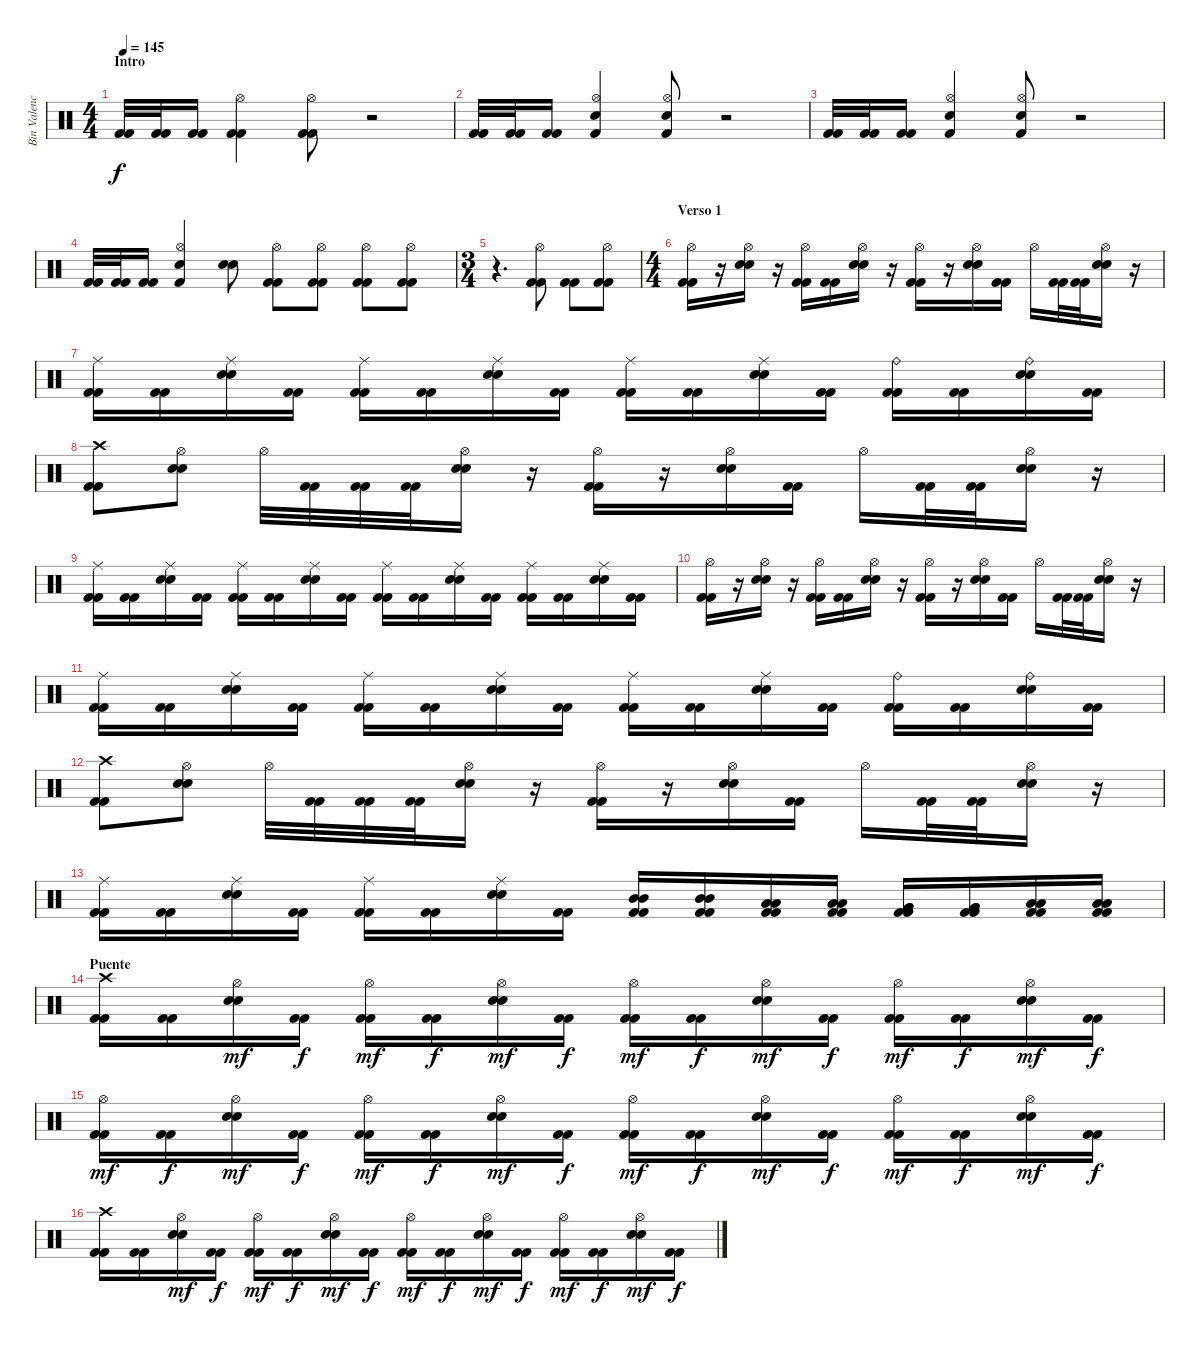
\track ("Bin Valencia (Bateria)" "Bin Valenc") {instrument percussion}
\staff {score}
\articulation defaults
\ts (4 4)
\section ("" "Intro")
\tempo 145
\clef neutral
\ks c
("Kick (hit) 2" "Kick (hit) 2").32{dy f} ("Kick (hit) 2" "Kick (hit) 2").32 ("Kick (hit) 2" "Kick (hit) 2").16 ("Hi-Hat (open)" "Kick (hit) 2" "Kick (hit) 2").4 ("Hi-Hat (open)" "Kick (hit) 2" "Kick (hit) 2").8 r.2 |
("Kick (hit) 2" "Kick (hit) 2").32 ("Kick (hit) 2" "Kick (hit) 2").32 ("Kick (hit) 2" "Kick (hit) 2").16 ("Hi-Hat (open)" "Snare (hit) 2" "Kick (hit) 2").4 ("Hi-Hat (open)" "Snare (hit) 2" "Kick (hit) 2").8 r.2 |
("Kick (hit) 2" "Kick (hit) 2").32 ("Kick (hit) 2" "Kick (hit) 2").32 ("Kick (hit) 2" "Kick (hit) 2").16 ("Hi-Hat (open)" "Snare (hit) 2" "Kick (hit) 2").4 ("Hi-Hat (open)" "Snare (hit) 2" "Kick (hit) 2").8 r.2 |
("Kick (hit) 2" "Kick (hit) 2").32 ("Kick (hit) 2" "Kick (hit) 2").32 ("Kick (hit) 2" "Kick (hit) 2").16 ("Hi-Hat (open)" "Snare (hit) 2" "Kick (hit) 2").4 ("Electric Snare (hit)" "Electric Snare (hit)").8 ("Hi-Hat (open)" "Kick (hit) 2" "Kick (hit) 2").8 ("Hi-Hat (open)" "Kick (hit) 2" "Kick (hit) 2").8 ("Hi-Hat (open)" "Kick (hit) 2" "Kick (hit) 2").8 ("Hi-Hat (open)" "Kick (hit) 2" "Kick (hit) 2").8 |
\ts (3 4)
r.4{d} ("Hi-Hat (open)" "Kick (hit) 2" "Kick (hit) 2").8 ("Kick (hit) 2" "Kick (hit) 2").8 ("Hi-Hat (open)" "Kick (hit) 2" "Kick (hit) 2").8 |
\ts (4 4)
\section ("" "Verso 1")
("Hi-Hat (open)" "Kick (hit) 2" "Kick (hit) 2").16 r.16 ("Hi-Hat (open)" "Snare (hit) 2" "Snare (hit) 2").16 r.16 ("Hi-Hat (open)" "Kick (hit) 2" "Kick (hit) 2").16 ("Kick (hit) 2" "Kick (hit) 2").16 ("Hi-Hat (open)" "Snare (hit) 2" "Snare (hit) 2").16 r.16 ("Hi-Hat (open)" "Kick (hit) 2" "Kick (hit) 2").16 r.16 ("Hi-Hat (open)" "Snare (hit) 2" "Snare (hit) 2").16 ("Kick (hit) 2" "Kick (hit) 2").16 "Hi-Hat (open)".16 ("Kick (hit) 2" "Kick (hit) 2").32 ("Kick (hit) 2" "Kick (hit) 2").32 ("Hi-Hat (open)" "Snare (hit) 2" "Snare (hit) 2").16 r.16 |
("Ride (middle)" "Kick (hit) 2" "Kick (hit) 2").16 ("Kick (hit) 2" "Kick (hit) 2").16 ("Ride (middle)" "Snare (hit) 2" "Snare (hit) 2").16 ("Kick (hit) 2" "Kick (hit) 2").16 ("Ride (middle)" "Kick (hit) 2" "Kick (hit) 2").16 ("Kick (hit) 2" "Kick (hit) 2").16 ("Ride (middle)" "Snare (hit) 2" "Snare (hit) 2").16 ("Kick (hit) 2" "Kick (hit) 2").16 ("Ride (middle)" "Kick (hit) 2" "Kick (hit) 2").16 ("Kick (hit) 2" "Kick (hit) 2").16 ("Ride (middle)" "Snare (hit) 2" "Snare (hit) 2").16 ("Kick (hit) 2" "Kick (hit) 2").16 ("Ride (bell)" "Kick (hit) 2" "Kick (hit) 2").16 ("Kick (hit) 2" "Kick (hit) 2").16 ("Ride (bell)" "Snare (hit) 2" "Snare (hit) 2").16 ("Kick (hit) 2" "Kick (hit) 2").16 |
("Crash high (hit)" "Kick (hit) 2" "Kick (hit) 2").8 ("Hi-Hat (open)" "Snare (hit) 2" "Snare (hit) 2").8 "Hi-Hat (open)".32 ("Kick (hit) 2" "Kick (hit) 2").32 ("Kick (hit) 2" "Kick (hit) 2").32 ("Kick (hit) 2" "Kick (hit) 2").32 ("Hi-Hat (open)" "Snare (hit) 2" "Snare (hit) 2").16 r.16 ("Hi-Hat (open)" "Kick (hit) 2" "Kick (hit) 2").16 r.16 ("Hi-Hat (open)" "Snare (hit) 2" "Snare (hit) 2").16 ("Kick (hit) 2" "Kick (hit) 2").16 "Hi-Hat (open)".16 ("Kick (hit) 2" "Kick (hit) 2").32 ("Kick (hit) 2" "Kick (hit) 2").32 ("Hi-Hat (open)" "Snare (hit) 2" "Snare (hit) 2").16 r.16 |
("Ride (middle)" "Kick (hit) 2" "Kick (hit) 2").16 ("Kick (hit) 2" "Kick (hit) 2").16 ("Ride (middle)" "Snare (hit) 2" "Snare (hit) 2").16 ("Kick (hit) 2" "Kick (hit) 2").16 ("Ride (middle)" "Kick (hit) 2" "Kick (hit) 2").16 ("Kick (hit) 2" "Kick (hit) 2").16 ("Ride (middle)" "Snare (hit) 2" "Snare (hit) 2").16 ("Kick (hit) 2" "Kick (hit) 2").16 ("Ride (middle)" "Kick (hit) 2" "Kick (hit) 2").16 ("Kick (hit) 2" "Kick (hit) 2").16 ("Ride (middle)" "Snare (hit) 2" "Snare (hit) 2").16 ("Kick (hit) 2" "Kick (hit) 2").16 ("Ride (middle)" "Kick (hit) 2" "Kick (hit) 2").16 ("Kick (hit) 2" "Kick (hit) 2").16 ("Ride (middle)" "Snare (hit) 2" "Snare (hit) 2").16 ("Kick (hit) 2" "Kick (hit) 2").16 |
("Hi-Hat (open)" "Kick (hit) 2" "Kick (hit) 2").16 r.16 ("Hi-Hat (open)" "Snare (hit) 2" "Snare (hit) 2").16 r.16 ("Hi-Hat (open)" "Kick (hit) 2" "Kick (hit) 2").16 ("Kick (hit) 2" "Kick (hit) 2").16 ("Hi-Hat (open)" "Snare (hit) 2" "Snare (hit) 2").16 r.16 ("Hi-Hat (open)" "Kick (hit) 2" "Kick (hit) 2").16 r.16 ("Hi-Hat (open)" "Snare (hit) 2" "Snare (hit) 2").16 ("Kick (hit) 2" "Kick (hit) 2").16 "Hi-Hat (open)".16 ("Kick (hit) 2" "Kick (hit) 2").32 ("Kick (hit) 2" "Kick (hit) 2").32 ("Hi-Hat (open)" "Snare (hit) 2" "Snare (hit) 2").16 r.16 |
("Ride (middle)" "Kick (hit) 2" "Kick (hit) 2").16 ("Kick (hit) 2" "Kick (hit) 2").16 ("Ride (middle)" "Snare (hit) 2" "Snare (hit) 2").16 ("Kick (hit) 2" "Kick (hit) 2").16 ("Ride (middle)" "Kick (hit) 2" "Kick (hit) 2").16 ("Kick (hit) 2" "Kick (hit) 2").16 ("Ride (middle)" "Snare (hit) 2" "Snare (hit) 2").16 ("Kick (hit) 2" "Kick (hit) 2").16 ("Ride (middle)" "Kick (hit) 2" "Kick (hit) 2").16 ("Kick (hit) 2" "Kick (hit) 2").16 ("Ride (middle)" "Snare (hit) 2" "Snare (hit) 2").16 ("Kick (hit) 2" "Kick (hit) 2").16 ("Ride (bell)" "Kick (hit) 2" "Kick (hit) 2").16 ("Kick (hit) 2" "Kick (hit) 2").16 ("Ride (bell)" "Snare (hit) 2" "Snare (hit) 2").16 ("Kick (hit) 2" "Kick (hit) 2").16 |
("Crash high (hit)" "Kick (hit) 2" "Kick (hit) 2").8 ("Hi-Hat (open)" "Snare (hit) 2" "Snare (hit) 2").8 "Hi-Hat (open)".32 ("Kick (hit) 2" "Kick (hit) 2").32 ("Kick (hit) 2" "Kick (hit) 2").32 ("Kick (hit) 2" "Kick (hit) 2").32 ("Hi-Hat (open)" "Snare (hit) 2" "Snare (hit) 2").16 r.16 ("Hi-Hat (open)" "Kick (hit) 2" "Kick (hit) 2").16 r.16 ("Hi-Hat (open)" "Snare (hit) 2" "Snare (hit) 2").16 ("Kick (hit) 2" "Kick (hit) 2").16 "Hi-Hat (open)".16 ("Kick (hit) 2" "Kick (hit) 2").32 ("Kick (hit) 2" "Kick (hit) 2").32 ("Hi-Hat (open)" "Snare (hit) 2" "Snare (hit) 2").16 r.16 |
("Ride (middle)" "Kick (hit) 2" "Kick (hit) 2").16 ("Kick (hit) 2" "Kick (hit) 2").16 ("Ride (middle)" "Snare (hit) 2" "Snare (hit) 2").16 ("Kick (hit) 2" "Kick (hit) 2").16 ("Ride (middle)" "Kick (hit) 2" "Kick (hit) 2").16 ("Kick (hit) 2" "Kick (hit) 2").16 ("Ride (middle)" "Snare (hit) 2" "Snare (hit) 2").16 ("Kick (hit) 2" "Kick (hit) 2").16 ("Kick (hit) 2" "Kick (hit) 2" "Mid Tom (hit)" "Mid Tom (hit)").16 ("Kick (hit) 2" "Kick (hit) 2" "Mid Tom (hit)" "Mid Tom (hit)").16 ("Kick (hit) 2" "Kick (hit) 2" "Low Tom (hit)" "Low Tom (hit)").16 ("Kick (hit) 2" "Kick (hit) 2" "Low Tom (hit)" "Low Tom (hit)").16 ("Kick (hit) 2" "Kick (hit) 2" "Very Low Tom (hit)" "Very Low Tom (hit)").16 ("Kick (hit) 2" "Kick (hit) 2" "Very Low Tom (hit)" "Very Low Tom (hit)").16 ("Kick (hit) 2" "Kick (hit) 2" "Low Floor Tom (hit)" "Low Floor Tom (hit)").16 ("Kick (hit) 2" "Kick (hit) 2" "Low Floor Tom (hit)" "Low Floor Tom (hit)").16 |
\section ("" "Puente")
("Crash high (hit)" "Kick (hit) 2" "Kick (hit) 2").16 ("Kick (hit) 2" "Kick (hit) 2").16 ("Hi-Hat (open)" "Snare (hit) 2" "Snare (hit) 2").16{dy mf} ("Kick (hit) 2" "Kick (hit) 2").16{dy f} ("Hi-Hat (open)" "Kick (hit) 2" "Kick (hit) 2").16{dy mf} ("Kick (hit) 2" "Kick (hit) 2").16{dy f} ("Hi-Hat (open)" "Snare (hit) 2" "Snare (hit) 2").16{dy mf} ("Kick (hit) 2" "Kick (hit) 2").16{dy f} ("Hi-Hat (open)" "Kick (hit) 2" "Kick (hit) 2").16{dy mf} ("Kick (hit) 2" "Kick (hit) 2").16{dy f} ("Hi-Hat (open)" "Snare (hit) 2" "Snare (hit) 2").16{dy mf} ("Kick (hit) 2" "Kick (hit) 2").16{dy f} ("Hi-Hat (open)" "Kick (hit) 2" "Kick (hit) 2").16{dy mf} ("Kick (hit) 2" "Kick (hit) 2").16{dy f} ("Hi-Hat (open)" "Snare (hit) 2" "Snare (hit) 2").16{dy mf} ("Kick (hit) 2" "Kick (hit) 2").16{dy f} |
("Hi-Hat (open)" "Kick (hit) 2" "Kick (hit) 2").16{dy mf} ("Kick (hit) 2" "Kick (hit) 2").16{dy f} ("Hi-Hat (open)" "Snare (hit) 2" "Snare (hit) 2").16{dy mf} ("Kick (hit) 2" "Kick (hit) 2").16{dy f} ("Hi-Hat (open)" "Kick (hit) 2" "Kick (hit) 2").16{dy mf} ("Kick (hit) 2" "Kick (hit) 2").16{dy f} ("Hi-Hat (open)" "Snare (hit) 2" "Snare (hit) 2").16{dy mf} ("Kick (hit) 2" "Kick (hit) 2").16{dy f} ("Hi-Hat (open)" "Kick (hit) 2" "Kick (hit) 2").16{dy mf} ("Kick (hit) 2" "Kick (hit) 2").16{dy f} ("Hi-Hat (open)" "Snare (hit) 2" "Snare (hit) 2").16{dy mf} ("Kick (hit) 2" "Kick (hit) 2").16{dy f} ("Hi-Hat (open)" "Kick (hit) 2" "Kick (hit) 2").16{dy mf} ("Kick (hit) 2" "Kick (hit) 2").16{dy f} ("Hi-Hat (open)" "Snare (hit) 2" "Snare (hit) 2").16{dy mf} ("Kick (hit) 2" "Kick (hit) 2").16{dy f} |
("Crash high (hit)" "Kick (hit) 2" "Kick (hit) 2").16 ("Kick (hit) 2" "Kick (hit) 2").16 ("Hi-Hat (open)" "Snare (hit) 2" "Snare (hit) 2").16{dy mf} ("Kick (hit) 2" "Kick (hit) 2").16{dy f} ("Hi-Hat (open)" "Kick (hit) 2" "Kick (hit) 2").16{dy mf} ("Kick (hit) 2" "Kick (hit) 2").16{dy f} ("Hi-Hat (open)" "Snare (hit) 2" "Snare (hit) 2").16{dy mf} ("Kick (hit) 2" "Kick (hit) 2").16{dy f} ("Hi-Hat (open)" "Kick (hit) 2" "Kick (hit) 2").16{dy mf} ("Kick (hit) 2" "Kick (hit) 2").16{dy f} ("Hi-Hat (open)" "Snare (hit) 2" "Snare (hit) 2").16{dy mf} ("Kick (hit) 2" "Kick (hit) 2").16{dy f} ("Hi-Hat (open)" "Kick (hit) 2" "Kick (hit) 2").16{dy mf} ("Kick (hit) 2" "Kick (hit) 2").16{dy f} ("Hi-Hat (open)" "Snare (hit) 2" "Snare (hit) 2").16{dy mf} ("Kick (hit) 2" "Kick (hit) 2").16{dy f}
